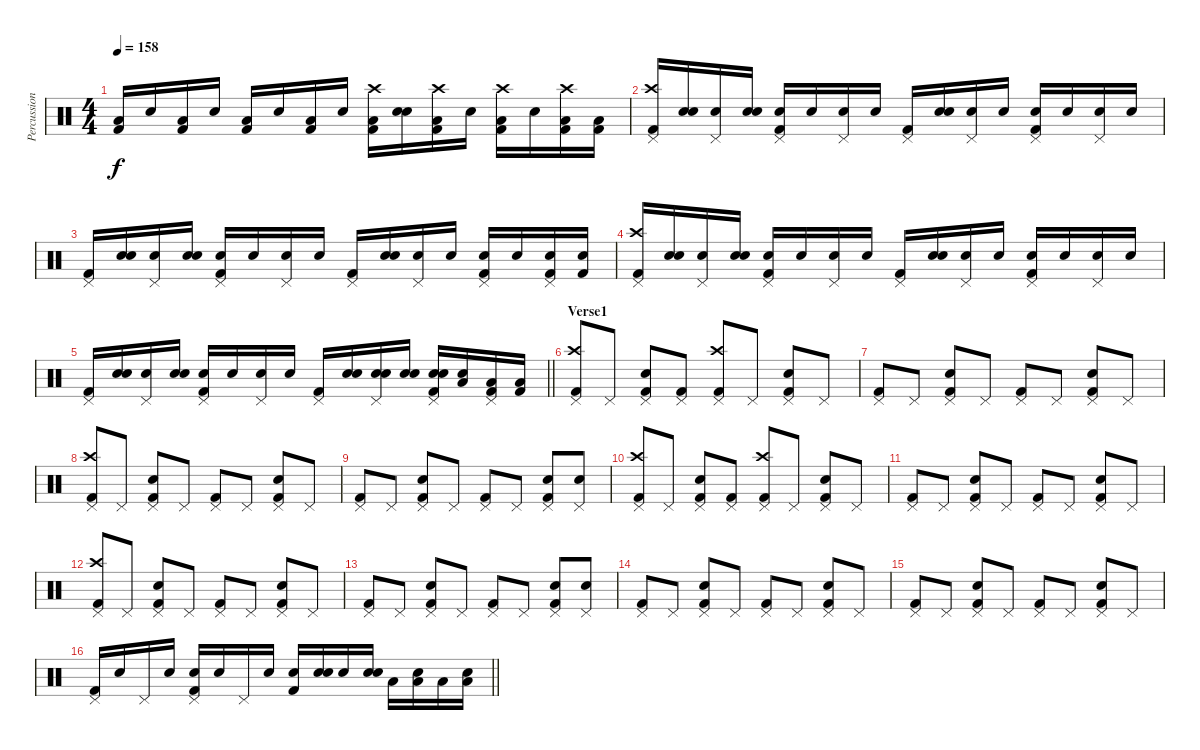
\track ("Percussion" "Percussion") {instrument percussion}
\staff {score}
\articulation defaults
\ts (4 4)
\tempo 158
\clef neutral
\ks c
("Low Tom (hit)" "Kick (hit) 2").16{dy f} "Snare (hit)".16 ("Low Tom (hit)" "Kick (hit) 2").16 "Snare (hit)".16 ("Low Tom (hit)" "Kick (hit) 2").16 "Snare (hit)".16 ("Low Tom (hit)" "Kick (hit) 2").16 "Snare (hit)".16 ("Low Tom (hit)" "Kick (hit) 2" "Crash high (hit)").16{volume 3} ("Snare (hit)" "Snare (hit)").16 ("Low Tom (hit)" "Kick (hit) 2" "Crash high (hit)").16{volume 5} "Snare (hit)".16 ("Low Tom (hit)" "Kick (hit) 2" "Crash high (hit)").16{volume 6} "Snare (hit)".16 ("Low Tom (hit)" "Kick (hit) 2" "Crash high (hit)").16{volume 7} ("Low Tom (hit)" "Kick (hit) 2").16 |
("Kick (hit) 2" "Crash high (hit)" "Pedal Hi-Hat (hit)").16 ("Snare (hit)" "Snare (hit)").16 ("Snare (hit)" "Pedal Hi-Hat (hit)").16 ("Snare (hit)" "Snare (hit)").16 ("Kick (hit) 2" "Electric Snare (hit)" "Pedal Hi-Hat (hit)").16 "Snare (hit)".16 ("Snare (hit)" "Pedal Hi-Hat (hit)").16 "Snare (hit)".16 ("Kick (hit) 2" "Pedal Hi-Hat (hit)").16 ("Snare (hit)" "Snare (hit)").16 ("Snare (hit)" "Pedal Hi-Hat (hit)").16 "Snare (hit)".16 ("Kick (hit) 2" "Electric Snare (hit)" "Pedal Hi-Hat (hit)").16 "Snare (hit)".16 ("Snare (hit)" "Pedal Hi-Hat (hit)").16 "Snare (hit)".16 |
("Kick (hit) 2" "Pedal Hi-Hat (hit)").16 ("Snare (hit)" "Snare (hit)").16 ("Snare (hit)" "Pedal Hi-Hat (hit)").16 ("Snare (hit)" "Snare (hit)").16 ("Kick (hit) 2" "Electric Snare (hit)" "Pedal Hi-Hat (hit)").16 "Snare (hit)".16 ("Snare (hit)" "Pedal Hi-Hat (hit)").16 "Snare (hit)".16 ("Kick (hit) 2" "Pedal Hi-Hat (hit)").16 ("Snare (hit)" "Snare (hit)").16 ("Snare (hit)" "Pedal Hi-Hat (hit)").16 "Snare (hit)".16 ("Kick (hit) 2" "Electric Snare (hit)" "Pedal Hi-Hat (hit)").16 "Snare (hit)".16 ("Kick (hit) 2" "Snare (hit) 2" "Pedal Hi-Hat (hit)").16 ("Kick (hit) 2" "Snare (hit) 2").16 |
("Kick (hit) 2" "Crash high (hit)" "Pedal Hi-Hat (hit)").16 ("Snare (hit)" "Snare (hit)").16 ("Snare (hit)" "Pedal Hi-Hat (hit)").16 ("Snare (hit)" "Snare (hit)").16 ("Kick (hit) 2" "Electric Snare (hit)" "Pedal Hi-Hat (hit)").16 "Snare (hit)".16 ("Snare (hit)" "Pedal Hi-Hat (hit)").16 "Snare (hit)".16 ("Kick (hit) 2" "Pedal Hi-Hat (hit)").16 ("Snare (hit)" "Snare (hit)").16 ("Snare (hit)" "Pedal Hi-Hat (hit)").16 "Snare (hit)".16 ("Kick (hit) 2" "Electric Snare (hit)" "Pedal Hi-Hat (hit)").16 "Snare (hit)".16 ("Snare (hit)" "Pedal Hi-Hat (hit)").16 "Snare (hit)".16 |
\barLineRight lightlight
("Kick (hit) 2" "Pedal Hi-Hat (hit)").16 ("Snare (hit)" "Snare (hit)").16 ("Snare (hit)" "Pedal Hi-Hat (hit)").16 ("Snare (hit)" "Snare (hit)").16 ("Kick (hit) 2" "Electric Snare (hit)" "Pedal Hi-Hat (hit)").16 "Snare (hit)".16 ("Snare (hit)" "Pedal Hi-Hat (hit)").16 "Snare (hit)".16 ("Kick (hit) 2" "Pedal Hi-Hat (hit)").16 ("Snare (hit)" "Snare (hit)").16 ("Snare (hit)" "Snare (hit) 2" "Pedal Hi-Hat (hit)").16 ("Snare (hit)" "Snare (hit) 2").16 ("Kick (hit) 2" "Snare (hit) 2" "Electric Snare (hit)" "Pedal Hi-Hat (hit)").16 ("Snare (hit)" "Low Tom (hit)").16 ("Kick (hit) 2" "Low Tom (hit)" "Pedal Hi-Hat (hit)").16 ("Kick (hit) 2" "Low Tom (hit)").16 |
\section ("" "Verse1")
("Crash high (hit)" "Kick (hit) 2" "Pedal Hi-Hat (hit)").8 "Pedal Hi-Hat (hit)".8 ("Snare (hit) 2" "Kick (hit) 2" "Pedal Hi-Hat (hit)").8 ("Kick (hit) 2" "Pedal Hi-Hat (hit)").8 ("Crash high (hit)" "Kick (hit) 2" "Pedal Hi-Hat (hit)").8 "Pedal Hi-Hat (hit)".8 ("Snare (hit) 2" "Kick (hit) 2" "Pedal Hi-Hat (hit)").8 "Pedal Hi-Hat (hit)".8 |
("Kick (hit) 2" "Pedal Hi-Hat (hit)").8 "Pedal Hi-Hat (hit)".8 ("Snare (hit) 2" "Kick (hit) 2" "Pedal Hi-Hat (hit)").8 "Pedal Hi-Hat (hit)".8 ("Kick (hit) 2" "Pedal Hi-Hat (hit)").8 "Pedal Hi-Hat (hit)".8 ("Snare (hit) 2" "Kick (hit) 2" "Pedal Hi-Hat (hit)").8 "Pedal Hi-Hat (hit)".8 |
("Crash high (hit)" "Kick (hit) 2" "Pedal Hi-Hat (hit)").8 "Pedal Hi-Hat (hit)".8 ("Snare (hit) 2" "Kick (hit) 2" "Pedal Hi-Hat (hit)").8 "Pedal Hi-Hat (hit)".8 ("Kick (hit) 2" "Pedal Hi-Hat (hit)").8 "Pedal Hi-Hat (hit)".8 ("Snare (hit) 2" "Kick (hit) 2" "Pedal Hi-Hat (hit)").8 "Pedal Hi-Hat (hit)".8 |
("Kick (hit) 2" "Pedal Hi-Hat (hit)").8 "Pedal Hi-Hat (hit)".8 ("Snare (hit) 2" "Kick (hit) 2" "Pedal Hi-Hat (hit)").8 "Pedal Hi-Hat (hit)".8 ("Kick (hit) 2" "Pedal Hi-Hat (hit)").8 "Pedal Hi-Hat (hit)".8 ("Snare (hit) 2" "Kick (hit) 2" "Pedal Hi-Hat (hit)").8 ("Snare (hit) 2" "Pedal Hi-Hat (hit)").8 |
("Crash high (hit)" "Kick (hit) 2" "Pedal Hi-Hat (hit)").8 "Pedal Hi-Hat (hit)".8 ("Snare (hit) 2" "Kick (hit) 2" "Pedal Hi-Hat (hit)").8 ("Kick (hit) 2" "Pedal Hi-Hat (hit)").8 ("Crash high (hit)" "Kick (hit) 2" "Pedal Hi-Hat (hit)").8 "Pedal Hi-Hat (hit)".8 ("Snare (hit) 2" "Kick (hit) 2" "Pedal Hi-Hat (hit)").8 "Pedal Hi-Hat (hit)".8 |
("Kick (hit) 2" "Pedal Hi-Hat (hit)").8 "Pedal Hi-Hat (hit)".8 ("Snare (hit) 2" "Kick (hit) 2" "Pedal Hi-Hat (hit)").8 "Pedal Hi-Hat (hit)".8 ("Kick (hit) 2" "Pedal Hi-Hat (hit)").8 "Pedal Hi-Hat (hit)".8 ("Snare (hit) 2" "Kick (hit) 2" "Pedal Hi-Hat (hit)").8 "Pedal Hi-Hat (hit)".8 |
("Crash high (hit)" "Kick (hit) 2" "Pedal Hi-Hat (hit)").8 "Pedal Hi-Hat (hit)".8 ("Snare (hit) 2" "Kick (hit) 2" "Pedal Hi-Hat (hit)").8 "Pedal Hi-Hat (hit)".8 ("Kick (hit) 2" "Pedal Hi-Hat (hit)").8 "Pedal Hi-Hat (hit)".8 ("Snare (hit) 2" "Kick (hit) 2" "Pedal Hi-Hat (hit)").8 "Pedal Hi-Hat (hit)".8 |
("Kick (hit) 2" "Pedal Hi-Hat (hit)").8 "Pedal Hi-Hat (hit)".8 ("Snare (hit) 2" "Kick (hit) 2" "Pedal Hi-Hat (hit)").8 "Pedal Hi-Hat (hit)".8 ("Kick (hit) 2" "Pedal Hi-Hat (hit)").8 "Pedal Hi-Hat (hit)".8 ("Snare (hit) 2" "Kick (hit) 2" "Pedal Hi-Hat (hit)").8 ("Snare (hit) 2" "Pedal Hi-Hat (hit)").8 |
("Kick (hit) 2" "Pedal Hi-Hat (hit)").8 "Pedal Hi-Hat (hit)".8 ("Snare (hit) 2" "Kick (hit) 2" "Pedal Hi-Hat (hit)").8 "Pedal Hi-Hat (hit)".8 ("Kick (hit) 2" "Pedal Hi-Hat (hit)").8 "Pedal Hi-Hat (hit)".8 ("Snare (hit) 2" "Kick (hit) 2" "Pedal Hi-Hat (hit)").8 "Pedal Hi-Hat (hit)".8 |
("Kick (hit) 2" "Pedal Hi-Hat (hit)").8 "Pedal Hi-Hat (hit)".8 ("Snare (hit) 2" "Kick (hit) 2" "Pedal Hi-Hat (hit)").8 "Pedal Hi-Hat (hit)".8 ("Kick (hit) 2" "Pedal Hi-Hat (hit)").8 "Pedal Hi-Hat (hit)".8 ("Snare (hit) 2" "Kick (hit) 2" "Pedal Hi-Hat (hit)").8 "Pedal Hi-Hat (hit)".8 |
\barLineRight lightlight
("Kick (hit) 2" "Pedal Hi-Hat (hit)").16 "Snare (hit)".16 "Pedal Hi-Hat (hit)".16 "Snare (hit)".16 ("Snare (hit) 2" "Kick (hit) 2" "Pedal Hi-Hat (hit)").16 "Snare (hit)".16 "Pedal Hi-Hat (hit)".16 "Snare (hit)".16 ("Snare (hit) 2" "Kick (hit) 2").16 ("Snare (hit) 2" "Snare (hit)").16 "Snare (hit) 2".16 ("Snare (hit) 2" "Snare (hit)").16 "Low Tom (hit)".16 ("Low Tom (hit)" "Snare (hit)").16 "Low Tom (hit)".16 ("Low Tom (hit)" "Snare (hit)").16
